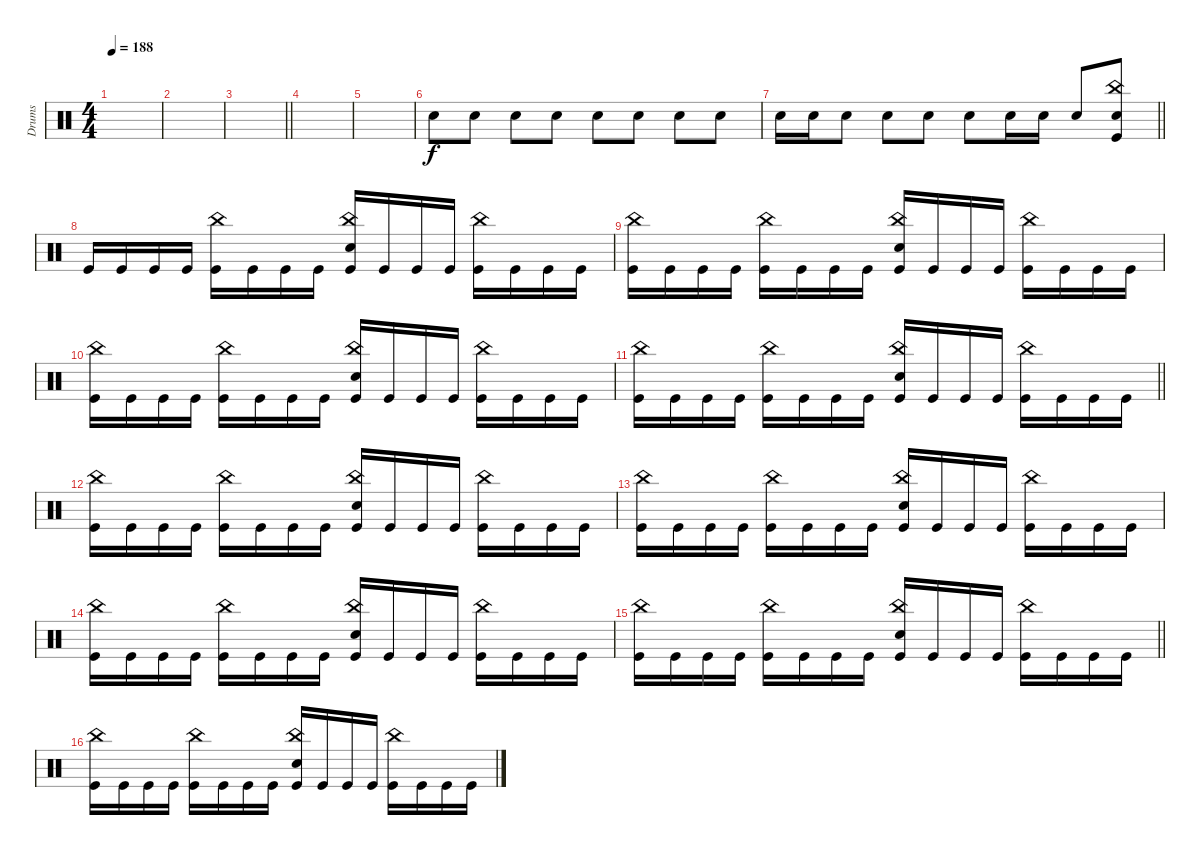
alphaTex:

\track ("Drums" "Drums") {instrument percussion}
\staff
\articulation defaults
\ts (4 4)
\tempo 188
\clef neutral
\ks c
|
|
\barLineRight lightlight
|
|
|
"Electric Snare (hit)".8 "Electric Snare (hit)".8 "Electric Snare (hit)".8 "Electric Snare (hit)".8 "Electric Snare (hit)".8 "Electric Snare (hit)".8 "Electric Snare (hit)".8 "Electric Snare (hit)".8 |
\barLineRight lightlight "Electric Snare (hit)".16 "Electric Snare (hit)".16 "Electric Snare (hit)".8 "Electric Snare (hit)".8 "Electric Snare (hit)".8 "Electric Snare (hit)".8 "Electric Snare (hit)".16 "Electric Snare (hit)".16 "Electric Snare (hit)".8
("China (hit)" "Electric Snare (hit)" "Kick (hit)").8 |
\section ("" "")
"Kick (hit)".16 "Kick (hit)".16 "Kick (hit)".16 "Kick (hit)".16 ("China (hit)" "Kick (hit)").16 "Kick (hit)".16 "Kick (hit)".16 "Kick (hit)".16 ("China (hit)" "Electric Snare (hit)" "Kick (hit)").16 "Kick (hit)".16 "Kick (hit)".16 "Kick (hit)".16 ("China (hit)" "Kick (hit)").16 "Kick (hit)".16 "Kick (hit)".16 "Kick (hit)".16 |
("China (hit)" "Kick (hit)").16 "Kick (hit)".16 "Kick (hit)".16 "Kick (hit)".16 ("China (hit)" "Kick (hit)").16 "Kick (hit)".16 "Kick (hit)".16 "Kick (hit)".16 ("China (hit)" "Electric Snare (hit)" "Kick (hit)").16 "Kick (hit)".16 "Kick (hit)".16 "Kick (hit)".16 ("China (hit)" "Kick (hit)").16 "Kick (hit)".16 "Kick (hit)".16 "Kick (hit)".16 |
("China (hit)" "Kick (hit)").16 "Kick (hit)".16 "Kick (hit)".16 "Kick (hit)".16 ("China (hit)" "Kick (hit)").16 "Kick (hit)".16 "Kick (hit)".16 "Kick (hit)".16 ("China (hit)" "Electric Snare (hit)" "Kick (hit)").16 "Kick (hit)".16 "Kick (hit)".16 "Kick (hit)".16 ("China (hit)" "Kick (hit)").16 "Kick (hit)".16 "Kick (hit)".16 "Kick (hit)".16 |
\barLineRight lightlight
("China (hit)" "Kick (hit)").16 "Kick (hit)".16 "Kick (hit)".16 "Kick (hit)".16 ("China (hit)" "Kick (hit)").16 "Kick (hit)".16 "Kick (hit)".16 "Kick (hit)".16 ("China (hit)" "Electric Snare (hit)" "Kick (hit)").16 "Kick (hit)".16 "Kick (hit)".16 "Kick (hit)".16 ("China (hit)" "Kick (hit)").16 "Kick (hit)".16 "Kick (hit)".16 "Kick (hit)".16 |
("China (hit)" "Kick (hit)").16 "Kick (hit)".16 "Kick (hit)".16 "Kick (hit)".16 ("China (hit)" "Kick (hit)").16 "Kick (hit)".16 "Kick (hit)".16 "Kick (hit)".16 ("China (hit)" "Electric Snare (hit)" "Kick (hit)").16 "Kick (hit)".16 "Kick (hit)".16 "Kick (hit)".16 ("China (hit)" "Kick (hit)").16 "Kick (hit)".16 "Kick (hit)".16 "Kick (hit)".16 |
("China (hit)" "Kick (hit)").16 "Kick (hit)".16 "Kick (hit)".16 "Kick (hit)".16 ("China (hit)" "Kick (hit)").16 "Kick (hit)".16 "Kick (hit)".16 "Kick (hit)".16 ("China (hit)" "Electric Snare (hit)" "Kick (hit)").16 "Kick (hit)".16 "Kick (hit)".16 "Kick (hit)".16 ("China (hit)" "Kick (hit)").16 "Kick (hit)".16 "Kick (hit)".16 "Kick (hit)".16 |
("China (hit)" "Kick (hit)").16 "Kick (hit)".16 "Kick (hit)".16 "Kick (hit)".16 ("China (hit)" "Kick (hit)").16 "Kick (hit)".16 "Kick (hit)".16 "Kick (hit)".16 ("China (hit)" "Electric Snare (hit)" "Kick (hit)").16 "Kick (hit)".16 "Kick (hit)".16 "Kick (hit)".16 ("China (hit)" "Kick (hit)").16 "Kick (hit)".16 "Kick (hit)".16 "Kick (hit)".16 |
\barLineRight lightlight
("China (hit)" "Kick (hit)").16 "Kick (hit)".16 "Kick (hit)".16 "Kick (hit)".16 ("China (hit)" "Kick (hit)").16 "Kick (hit)".16 "Kick (hit)".16 "Kick (hit)".16 ("China (hit)" "Electric Snare (hit)" "Kick (hit)").16 "Kick (hit)".16 "Kick (hit)".16 "Kick (hit)".16 ("China (hit)" "Kick (hit)").16 "Kick (hit)".16 "Kick (hit)".16 "Kick (hit)".16 |
("China (hit)" "Kick (hit)").16 "Kick (hit)".16 "Kick (hit)".16 "Kick (hit)".16 ("China (hit)" "Kick (hit)").16 "Kick (hit)".16 "Kick (hit)".16 "Kick (hit)".16 ("China (hit)" "Electric Snare (hit)" "Kick (hit)").16 "Kick (hit)".16 "Kick (hit)".16 "Kick (hit)".16 ("China (hit)" "Kick (hit)").16 "Kick (hit)".16 "Kick (hit)".16 "Kick (hit)".16
